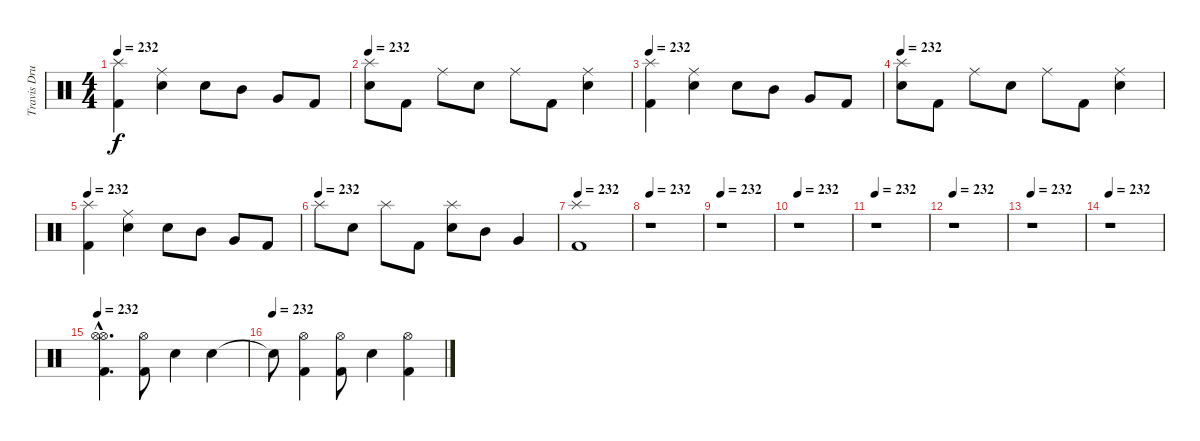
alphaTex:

\track ("Travis Drums" "Travis Dru") {instrument percussion}
\staff {score}
\articulation defaults
\ts (4 4)
\tempo 232
\clef neutral
\ks c
("Splash (hit)" "Kick (hit) 2").4{dy f} ("Ride (middle)" "Electric Snare (hit)").4 "Electric Snare (hit)".8 "Mid Tom (hit)".8 "Very Low Tom (hit)".8 "Kick (hit) 2".8 |
\tempo 232
("Splash (hit)" "Electric Snare (hit)").8 "Kick (hit) 2".8 "Ride (middle)".8 "Electric Snare (hit)".8 "Ride (middle)".8 "Kick (hit) 2".8 ("Ride (middle)" "Electric Snare (hit)").4 |
\tempo 232
("Splash (hit)" "Kick (hit) 2").4 ("Ride (middle)" "Electric Snare (hit)").4 "Electric Snare (hit)".8 "Mid Tom (hit)".8 "Very Low Tom (hit)".8 "Kick (hit) 2".8 |
\tempo 232
("Splash (hit)" "Electric Snare (hit)").8 "Kick (hit) 2".8 "Ride (middle)".8 "Electric Snare (hit)".8 "Ride (middle)".8 "Kick (hit) 2".8 ("Ride (middle)" "Electric Snare (hit)").4 |
\tempo 232
("Splash (hit)" "Kick (hit) 2").4 ("Ride (middle)" "Electric Snare (hit)").4 "Electric Snare (hit)".8 "Mid Tom (hit)".8 "Very Low Tom (hit)".8 "Kick (hit) 2".8 |
\tempo (232)
"Splash (hit)".8 "Electric Snare (hit)".8 "Splash (hit)".8 "Kick (hit) 2".8 ("Splash (hit)" "Electric Snare (hit)").8 "Mid Tom (hit)".8 "Very Low Tom (hit)".4 |
\tempo 232
("Splash (hit)" "Kick (hit) 2").1 |
\tempo 232
r.1 |
\tempo 232
r.1 |
\tempo 232
r.1 |
\tempo 232
r.1 |
\tempo 232
r.1 |
\tempo 232
r.1 |
\tempo 232
r.1 |
\tempo 232
("Hi-Hat (open)"{hac} "Hi-Hat (open)"{hac} "Kick (hit) 2"{hac}).4{d} ("Hi-Hat (open)" "Kick (hit) 2").8 "Electric Snare (hit)".4 "Electric Snare (hit)".4 |
\tempo (232)
"Snare (hit)"{t}.8 ("Hi-Hat (open)" "Kick (hit) 2").4 ("Hi-Hat (open)" "Kick (hit) 2").8 "Electric Snare (hit)".4 ("Hi-Hat (open)" "Kick (hit) 2").4
